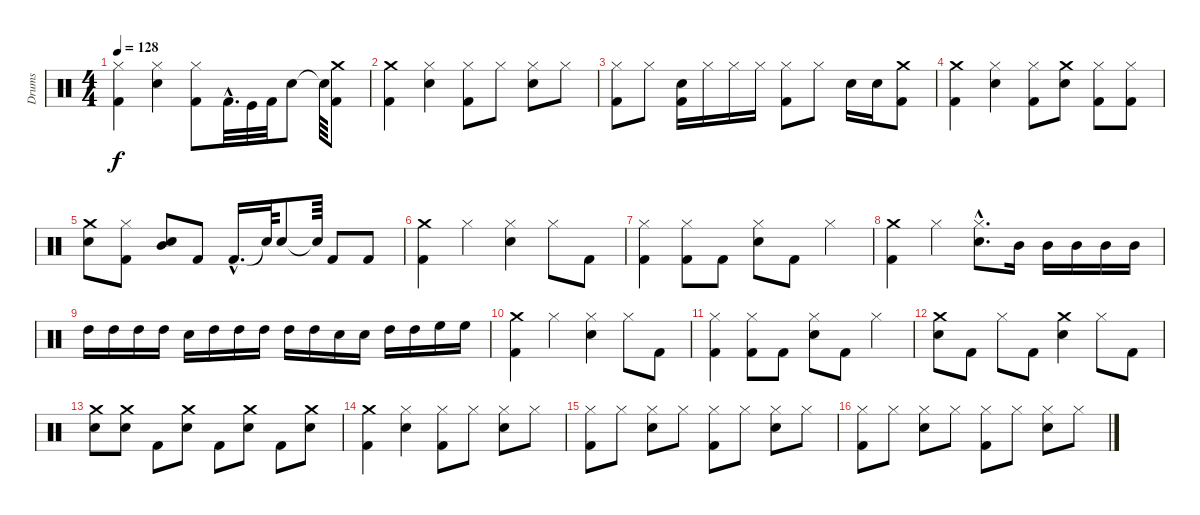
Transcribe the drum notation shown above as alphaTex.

\track ("Drums" "Drums") {instrument percussion}
\staff {score}
\articulation defaults
\ts (4 4)
\tempo 128
\clef neutral
\ks c
("Hi-Hat (closed)" "Kick (hit) 2").4{dy f} ("Hi-Hat (closed)" "Snare (hit) 2").4 ("Kick (hit) 2" "Hi-Hat (closed)").8 "Kick (hit) 2"{hac}.32{d} "Kick (hit)".32 "Kick (hit) 2".32 "Snare (hit) 2".8 "Snare (hit)"{t}.64 ("Crash medium (hit)" "Kick (hit) 2").8 |
("Kick (hit) 2" "Crash medium (hit)").4 ("Hi-Hat (closed)" "Snare (hit) 2").4 ("Hi-Hat (closed)" "Kick (hit) 2").8 "Hi-Hat (closed)".8 ("Snare (hit) 2" "Hi-Hat (closed)").8 "Hi-Hat (closed)".8 |
("Kick (hit) 2" "Hi-Hat (closed)").8 "Hi-Hat (closed)".8 ("Kick (hit) 2" "Snare (hit) 2").16 "Hi-Hat (closed)".16 "Hi-Hat (closed)".16 "Hi-Hat (closed)".16 ("Kick (hit) 2" "Hi-Hat (closed)").8 "Hi-Hat (closed)".8 "Snare (hit) 2".16 "Snare (hit) 2".16 ("Kick (hit) 2" "Crash medium (hit)").8 |
("Kick (hit) 2" "Crash medium (hit)").4 ("Snare (hit) 2" "Hi-Hat (closed)").4 ("Kick (hit) 2" "Hi-Hat (closed)").8 ("Crash medium (hit)" "Snare (hit) 2").8 ("Kick (hit) 2" "Hi-Hat (closed)").8 ("Kick (hit) 2" "Hi-Hat (closed)").8 |
("Snare (hit) 2" "Crash medium (hit)").8 ("Kick (hit) 2" "Hi-Hat (closed)").8 ("Mid Tom (hit)" "Snare (hit) 2").8 "Kick (hit) 2".8 "Kick (hit) 2"{hac}.16{d} "Snare (hit)"{t}.64 "Snare (hit) 2".8 "Snare (hit)"{t}.64 "Kick (hit) 2".8 "Kick (hit) 2".8 |
("Kick (hit) 2" "Crash medium (hit)").4 "Hi-Hat (closed)".4 ("Snare (hit) 2" "Hi-Hat (closed)").4 "Hi-Hat (closed)".8 "Kick (hit) 2".8 |
("Hi-Hat (closed)" "Kick (hit) 2").4 ("Hi-Hat (closed)" "Kick (hit) 2").8 "Kick (hit) 2".8 ("Snare (hit) 2" "Hi-Hat (closed)").8 "Kick (hit) 2".8 "Hi-Hat (closed)".4 |
("Crash medium (hit)" "Kick (hit) 2").4 "Hi-Hat (closed)".4 ("Snare (hit) 2"{hac} "Hi-Hat (closed)"{hac}).8{d} "Mid Tom (hit)".16 "Mid Tom (hit)".16 "Mid Tom (hit)".16 "Mid Tom (hit)".16 "Mid Tom (hit)".16 |
"High Tom (hit)".16 "High Tom (hit)".16 "High Tom (hit)".16 "High Tom (hit)".16 "Snare (hit) 2".16 "High Tom (hit)".16 "High Tom (hit)".16 "High Tom (hit)".16 "High Tom (hit)".16 "High Tom (hit)".16 "Snare (hit) 2".16 "Snare (hit) 2".16 "High Tom (hit)".16 "High Tom (hit)".16 "High Floor Tom (hit)".16 "High Floor Tom (hit)".16 |
("Kick (hit) 2" "Crash medium (hit)").4 "Hi-Hat (closed)".4 ("Snare (hit) 2" "Hi-Hat (closed)").4 "Hi-Hat (closed)".8 "Kick (hit) 2".8 |
("Kick (hit) 2" "Hi-Hat (closed)").4 ("Kick (hit) 2" "Hi-Hat (closed)").8 "Kick (hit) 2".8 ("Snare (hit) 2" "Hi-Hat (closed)").8 "Kick (hit) 2".8 "Hi-Hat (closed)".4 |
("Crash medium (hit)" "Snare (hit) 2").8 "Kick (hit) 2".8 "Hi-Hat (closed)".8 "Kick (hit) 2".8 ("Crash medium (hit)" "Snare (hit) 2").4 "Hi-Hat (closed)".8 "Kick (hit) 2".8 |
("Crash medium (hit)" "Snare (hit) 2").8 ("Crash medium (hit)" "Snare (hit) 2").8 "Kick (hit) 2".8 ("Crash medium (hit)" "Snare (hit) 2").8 "Kick (hit) 2".8 ("Snare (hit) 2" "Crash medium (hit)").8 "Kick (hit) 2".8 ("Snare (hit) 2" "Crash medium (hit)").8 |
("Kick (hit) 2" "Crash medium (hit)").4 ("Hi-Hat (closed)" "Snare (hit) 2").4 ("Hi-Hat (closed)" "Kick (hit) 2").8 "Hi-Hat (closed)".8 ("Snare (hit) 2" "Hi-Hat (closed)").8 "Hi-Hat (closed)".8 |
("Hi-Hat (closed)" "Kick (hit) 2").8 "Hi-Hat (closed)".8 ("Snare (hit) 2" "Hi-Hat (closed)").8 "Hi-Hat (closed)".8 ("Hi-Hat (closed)" "Kick (hit) 2").8 "Hi-Hat (closed)".8 ("Snare (hit) 2" "Hi-Hat (closed)").8 "Hi-Hat (closed)".8 |
("Hi-Hat (closed)" "Kick (hit) 2").8 "Hi-Hat (closed)".8 ("Snare (hit) 2" "Hi-Hat (closed)").8 "Hi-Hat (closed)".8 ("Hi-Hat (closed)" "Kick (hit) 2").8 "Hi-Hat (closed)".8 ("Snare (hit) 2" "Hi-Hat (closed)").8 "Hi-Hat (closed)".8
